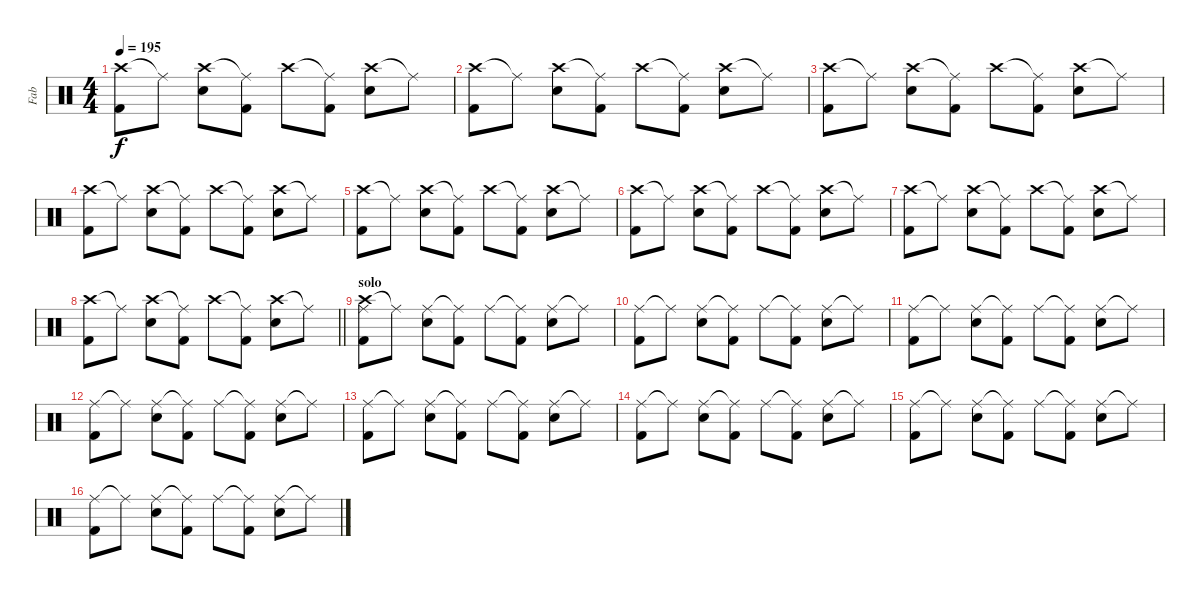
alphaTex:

\track ("Fab" "Fab") {instrument percussion}
\staff {score}
\articulation defaults
\ts (4 4)
\tempo 195
\clef neutral
\ks c
("Crash high (hit)" "Kick (hit) 2").8{dy f} "Ride (middle)"{t}.8 ("Crash high (hit)" "Electric Snare (hit)").8 ("Ride (middle)"{t} "Kick (hit) 2").8 "Crash high (hit)".8 ("Ride (middle)"{t} "Kick (hit) 2").8 ("Crash high (hit)" "Electric Snare (hit)").8 "Ride (middle)"{t}.8 |
("Crash high (hit)" "Kick (hit) 2").8 "Ride (middle)"{t}.8 ("Crash high (hit)" "Electric Snare (hit)").8 ("Ride (middle)"{t} "Kick (hit) 2").8 "Crash high (hit)".8 ("Ride (middle)"{t} "Kick (hit) 2").8 ("Crash high (hit)" "Electric Snare (hit)").8 "Ride (middle)"{t}.8 |
("Crash high (hit)" "Kick (hit) 2").8 "Ride (middle)"{t}.8 ("Crash high (hit)" "Electric Snare (hit)").8 ("Ride (middle)"{t} "Kick (hit) 2").8 "Crash high (hit)".8 ("Ride (middle)"{t} "Kick (hit) 2").8 ("Crash high (hit)" "Electric Snare (hit)").8 "Ride (middle)"{t}.8 |
("Crash high (hit)" "Kick (hit) 2").8 "Ride (middle)"{t}.8 ("Crash high (hit)" "Electric Snare (hit)").8 ("Ride (middle)"{t} "Kick (hit) 2").8 "Crash high (hit)".8 ("Ride (middle)"{t} "Kick (hit) 2").8 ("Crash high (hit)" "Electric Snare (hit)").8 "Ride (middle)"{t}.8 |
("Crash high (hit)" "Kick (hit) 2").8 "Ride (middle)"{t}.8 ("Crash high (hit)" "Electric Snare (hit)").8 ("Ride (middle)"{t} "Kick (hit) 2").8 "Crash high (hit)".8 ("Ride (middle)"{t} "Kick (hit) 2").8 ("Crash high (hit)" "Electric Snare (hit)").8 "Ride (middle)"{t}.8 |
("Crash high (hit)" "Kick (hit) 2").8 "Ride (middle)"{t}.8 ("Crash high (hit)" "Electric Snare (hit)").8 ("Ride (middle)"{t} "Kick (hit) 2").8 "Crash high (hit)".8 ("Ride (middle)"{t} "Kick (hit) 2").8 ("Crash high (hit)" "Electric Snare (hit)").8 "Ride (middle)"{t}.8 |
("Crash high (hit)" "Kick (hit) 2").8 "Ride (middle)"{t}.8 ("Crash high (hit)" "Electric Snare (hit)").8 ("Ride (middle)"{t} "Kick (hit) 2").8 "Crash high (hit)".8 ("Ride (middle)"{t} "Kick (hit) 2").8 ("Crash high (hit)" "Electric Snare (hit)").8 "Ride (middle)"{t}.8 |
\barLineRight lightlight
("Crash high (hit)" "Kick (hit) 2").8 "Ride (middle)"{t}.8 ("Crash high (hit)" "Electric Snare (hit)").8 ("Ride (middle)"{t} "Kick (hit) 2").8 "Crash high (hit)".8 ("Ride (middle)"{t} "Kick (hit) 2").8 ("Crash high (hit)" "Electric Snare (hit)").8 "Ride (middle)"{t}.8 |
\section ("" "solo")
("Crash high (hit)" "Ride (middle)" "Kick (hit) 2").8 "Ride (middle)"{t}.8 ("Ride (middle)" "Electric Snare (hit)").8 ("Ride (middle)"{t} "Kick (hit) 2").8 "Ride (middle)".8 ("Ride (middle)"{t} "Kick (hit) 2").8 ("Ride (middle)" "Electric Snare (hit)").8 "Ride (middle)"{t}.8 |
("Ride (middle)" "Kick (hit) 2").8 "Ride (middle)"{t}.8 ("Ride (middle)" "Electric Snare (hit)").8 ("Ride (middle)"{t} "Kick (hit) 2").8 "Ride (middle)".8 ("Ride (middle)"{t} "Kick (hit) 2").8 ("Ride (middle)" "Electric Snare (hit)").8 "Ride (middle)"{t}.8 |
("Ride (middle)" "Kick (hit) 2").8 "Ride (middle)"{t}.8 ("Ride (middle)" "Electric Snare (hit)").8 ("Ride (middle)"{t} "Kick (hit) 2").8 "Ride (middle)".8 ("Ride (middle)"{t} "Kick (hit) 2").8 ("Ride (middle)" "Electric Snare (hit)").8 "Ride (middle)"{t}.8 |
("Ride (middle)" "Kick (hit) 2").8 "Ride (middle)"{t}.8 ("Ride (middle)" "Electric Snare (hit)").8 ("Ride (middle)"{t} "Kick (hit) 2").8 "Ride (middle)".8 ("Ride (middle)"{t} "Kick (hit) 2").8 ("Ride (middle)" "Electric Snare (hit)").8 "Ride (middle)"{t}.8 |
("Ride (middle)" "Kick (hit) 2").8 "Ride (middle)"{t}.8 ("Ride (middle)" "Electric Snare (hit)").8 ("Ride (middle)"{t} "Kick (hit) 2").8 "Ride (middle)".8 ("Ride (middle)"{t} "Kick (hit) 2").8 ("Ride (middle)" "Electric Snare (hit)").8 "Ride (middle)"{t}.8 |
("Ride (middle)" "Kick (hit) 2").8 "Ride (middle)"{t}.8 ("Ride (middle)" "Electric Snare (hit)").8 ("Ride (middle)"{t} "Kick (hit) 2").8 "Ride (middle)".8 ("Ride (middle)"{t} "Kick (hit) 2").8 ("Ride (middle)" "Electric Snare (hit)").8 "Ride (middle)"{t}.8 |
("Ride (middle)" "Kick (hit) 2").8 "Ride (middle)"{t}.8 ("Ride (middle)" "Electric Snare (hit)").8 ("Ride (middle)"{t} "Kick (hit) 2").8 "Ride (middle)".8 ("Ride (middle)"{t} "Kick (hit) 2").8 ("Ride (middle)" "Electric Snare (hit)").8 "Ride (middle)"{t}.8 |
("Ride (middle)" "Kick (hit) 2").8 "Ride (middle)"{t}.8 ("Ride (middle)" "Electric Snare (hit)").8 ("Ride (middle)"{t} "Kick (hit) 2").8 "Ride (middle)".8 ("Ride (middle)"{t} "Kick (hit) 2").8 ("Ride (middle)" "Electric Snare (hit)").8 "Ride (middle)"{t}.8
